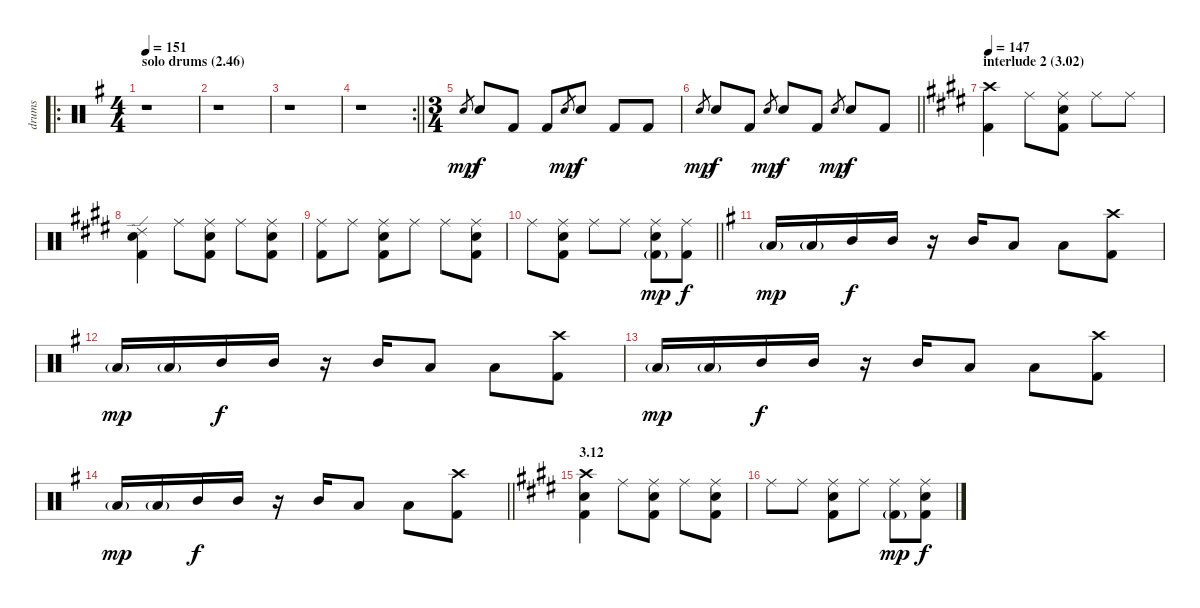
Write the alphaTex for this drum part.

\track ("drums" "drums") {instrument percussion}
\staff {score}
\articulation defaults
\ro
\ts (4 4)
\section ("" "solo drums (2.46)")
\tempo 151
\clef neutral
\ks g
r.1{dy mp} |
r.1 |
r.1 |
\rc 2
\barLineRight lightlight
r.1 |
\ts (3 4)
"Electric Snare (hit)".8{gr} "Electric Snare (hit)".8{dy f} "Kick (hit) 2".8 "Kick (hit) 2".8 "Electric Snare (hit)".8{gr dy mp} "Electric Snare (hit)".8{dy f} "Kick (hit) 2".8 "Kick (hit) 2".8 |
\barLineRight lightlight "Electric Snare (hit)".8{gr dy mp} "Electric Snare (hit)".8{dy f} "Kick (hit) 2".8 "Electric Snare (hit)".8{gr dy mp} "Electric Snare (hit)".8{dy f} "Kick (hit) 2".8 "Electric Snare (hit)".8{gr dy mp} "Electric Snare (hit)".8{dy f} "Kick (hit) 2".8
|
\section ("" "interlude 2 (3.02)")
\tempo 147
\ks e
("Crash high (hit)" "Kick (hit) 2").4 "Ride (middle)".8 ("Ride (middle)" "Electric Snare (hit)" "Kick (hit) 2").8 "Ride (middle)".8 "Ride (middle)".8 |
("Ride (edge) 2" "Electric Snare (hit)" "Kick (hit) 2").4 "Ride (middle)".8 ("Ride (middle)" "Electric Snare (hit)" "Kick (hit) 2").8 "Ride (middle)".8 ("Ride (middle)" "Electric Snare (hit)" "Kick (hit) 2").8 |
("Ride (middle)" "Kick (hit) 2").8 "Ride (middle)".8 ("Ride (middle)" "Electric Snare (hit)" "Kick (hit) 2").8 "Ride (middle)".8 "Ride (middle)".8 ("Ride (middle)" "Electric Snare (hit)" "Kick (hit) 2").8 |
\barLineRight lightlight "Ride (middle)".8
("Ride (middle)" "Electric Snare (hit)" "Kick (hit) 2").8 "Ride (middle)".8 "Ride (middle)".8 ("Ride (middle)" "Electric Snare (hit)" "Kick (hit) 2"{g}).8{dy mp} ("Ride (middle)" "Kick (hit) 2").8{dy f} |
\ks g "Low Tom (hit)"{g}.16{dy mp} "Low Tom (hit)"{g}.16 "Mid Tom (hit)".16{dy f} "Mid Tom (hit)".16
r.16 "Mid Tom (hit)".16 "Low Tom (hit)".8 "Low Tom (hit)".8 ("Crash high (hit)" "Kick (hit) 2").8 |
"Low Tom (hit)"{g}.16{dy mp} "Low Tom (hit)"{g}.16 "Mid Tom (hit)".16{dy f} "Mid Tom (hit)".16 r.16 "Mid Tom (hit)".16 "Low Tom (hit)".8 "Low Tom (hit)".8 ("Crash high (hit)" "Kick (hit) 2").8 |
"Low Tom (hit)"{g}.16{dy mp} "Low Tom (hit)"{g}.16 "Mid Tom (hit)".16{dy f} "Mid Tom (hit)".16 r.16 "Mid Tom (hit)".16 "Low Tom (hit)".8 "Low Tom (hit)".8 ("Crash high (hit)" "Kick (hit) 2").8 |
\barLineRight lightlight "Low Tom (hit)"{g}.16{dy mp} "Low Tom (hit)"{g}.16 "Mid Tom (hit)".16{dy f} "Mid Tom (hit)".16
r.16 "Mid Tom (hit)".16 "Low Tom (hit)".8 "Low Tom (hit)".8 ("Crash high (hit)" "Kick (hit) 2").8 |
\section ("" "3.12")
\ks e
("Crash high (hit)" "Electric Snare (hit)" "Kick (hit) 2").4 "Ride (middle)".8 ("Ride (middle)" "Electric Snare (hit)" "Kick (hit) 2").8 "Ride (middle)".8 ("Ride (middle)" "Electric Snare (hit)" "Kick (hit) 2").8 |
"Ride (middle)".8 "Ride (middle)".8 ("Ride (middle)" "Electric Snare (hit)" "Kick (hit) 2").8 "Ride (middle)".8 ("Ride (middle)" "Kick (hit) 2"{g}).8{dy mp} ("Ride (middle)" "Electric Snare (hit)" "Kick (hit) 2").8{dy f}
